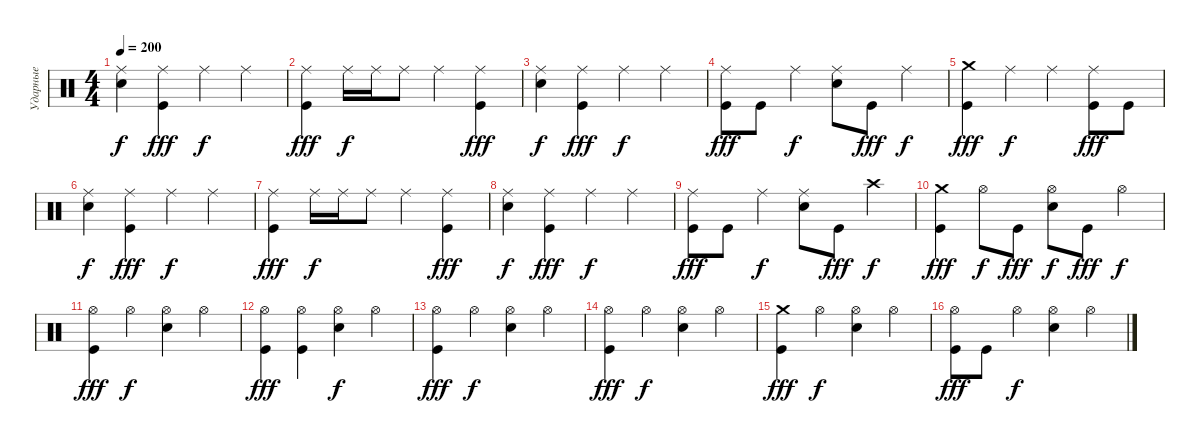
\track ("Ударные" "Ударные") {instrument percussion}
\staff {score}
\articulation defaults
\ts (4 4)
\tempo 200
\clef neutral
\ks c
("Ride (middle)" "Electric Snare (hit)").4{dy f} ("Ride (middle)" "Kick (hit)").4{dy fff} "Ride (middle)".4{dy f} "Ride (middle)".4 |
("Ride (middle)" "Kick (hit)").4{dy fff} "Ride (middle)".16{dy f} "Ride (middle)".16 "Ride (middle)".8 "Ride (middle)".4 ("Ride (middle)" "Kick (hit)").4{dy fff} |
("Ride (middle)" "Electric Snare (hit)").4{dy f} ("Ride (middle)" "Kick (hit)").4{dy fff} "Ride (middle)".4{dy f} "Ride (middle)".4 |
("Ride (middle)" "Kick (hit)").8{dy fff} "Kick (hit)".8 "Ride (middle)".4{dy f} ("Ride (middle)" "Electric Snare (hit)").8 "Kick (hit)".8{dy fff} "Ride (middle)".4{dy f} |
("Crash medium (hit)" "Kick (hit)").4{dy fff} "Ride (middle)".4{dy f} "Ride (middle)".4 ("Ride (middle)" "Kick (hit)").8{dy fff} "Kick (hit)".8 |
("Ride (middle)" "Electric Snare (hit)").4{dy f} ("Ride (middle)" "Kick (hit)").4{dy fff} "Ride (middle)".4{dy f} "Ride (middle)".4 |
("Ride (middle)" "Kick (hit)").4{dy fff} "Ride (middle)".16{dy f} "Ride (middle)".16 "Ride (middle)".8 "Ride (middle)".4 ("Ride (middle)" "Kick (hit)").4{dy fff} |
("Ride (middle)" "Electric Snare (hit)").4{dy f} ("Ride (middle)" "Kick (hit)").4{dy fff} "Ride (middle)".4{dy f} "Ride (middle)".4 |
("Ride (middle)" "Kick (hit)").8{dy fff} "Kick (hit)".8 "Ride (middle)".4{dy f} ("Ride (middle)" "Electric Snare (hit)").8 "Kick (hit)".8{dy fff} "Crash high (hit)".4{dy f} |
("Crash medium (hit)" "Kick (hit)").4{dy fff} "Hi-Hat (open)".8{dy f} "Kick (hit)".8{dy fff} ("Hi-Hat (open)" "Electric Snare (hit)").8{dy f} "Kick (hit)".8{dy fff} "Hi-Hat (open)".4{dy f} |
("Hi-Hat (open)" "Kick (hit)").4{dy fff} "Hi-Hat (open)".4{dy f} ("Hi-Hat (open)" "Electric Snare (hit)").4 "Hi-Hat (open)".4 |
("Hi-Hat (open)" "Kick (hit)").4{dy fff} ("Hi-Hat (open)" "Kick (hit)").4 ("Hi-Hat (open)" "Electric Snare (hit)").4{dy f} "Hi-Hat (open)".4 |
("Hi-Hat (open)" "Kick (hit)").4{dy fff} "Hi-Hat (open)".4{dy f} ("Hi-Hat (open)" "Electric Snare (hit)").4 "Hi-Hat (open)".4 |
("Hi-Hat (open)" "Kick (hit)").4{dy fff} "Hi-Hat (open)".4{dy f} ("Hi-Hat (open)" "Electric Snare (hit)").4 "Hi-Hat (open)".4 |
("Crash medium (hit)" "Kick (hit)").4{dy fff} "Hi-Hat (open)".4{dy f} ("Hi-Hat (open)" "Electric Snare (hit)").4 "Hi-Hat (open)".4 |
("Hi-Hat (open)" "Kick (hit)").8{dy fff} "Kick (hit)".8 "Hi-Hat (open)".4{dy f} ("Hi-Hat (open)" "Electric Snare (hit)").4 "Hi-Hat (open)".4
